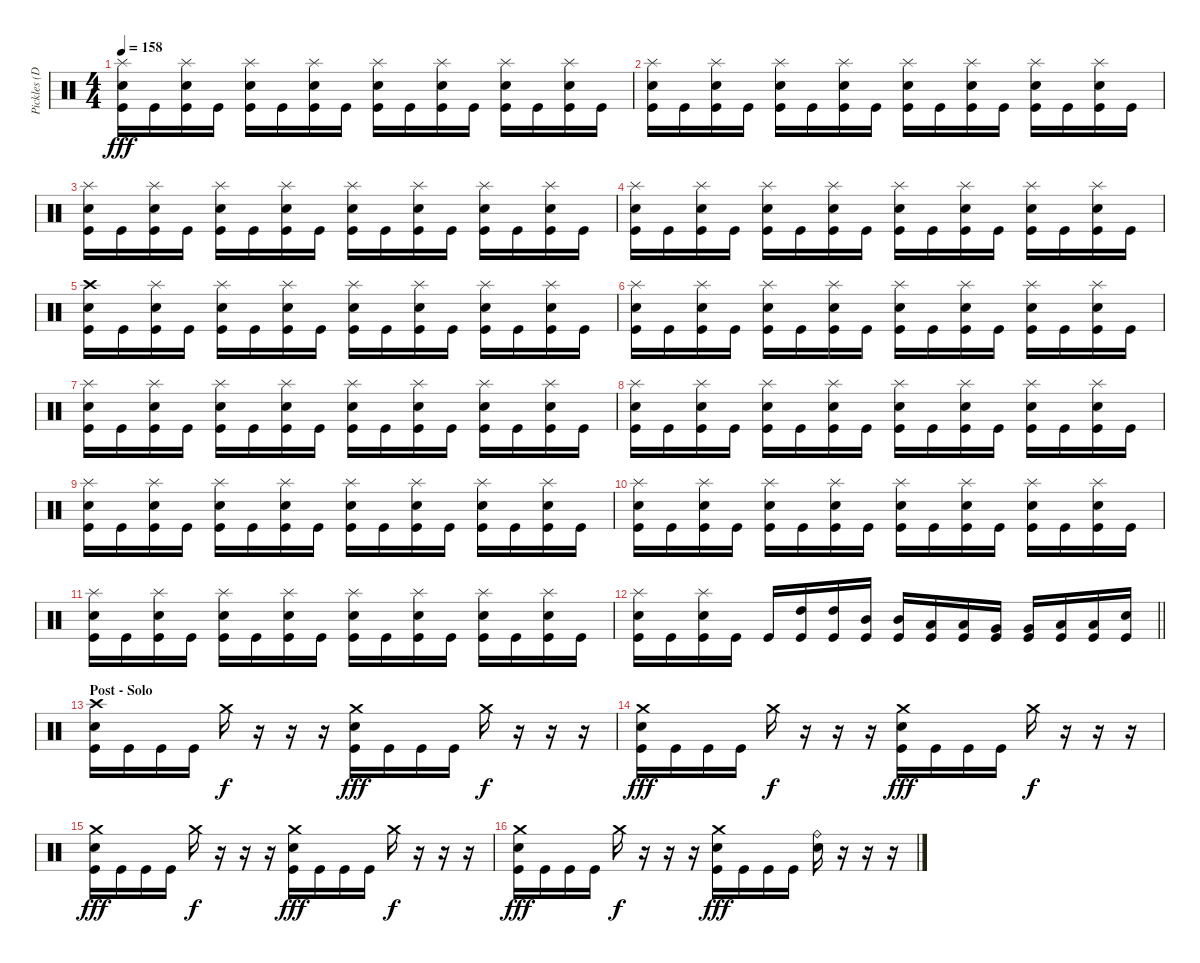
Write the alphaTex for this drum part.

\track ("Pickles (Drums)" "Pickles (D") {instrument percussion}
\staff {score}
\articulation defaults
\ts (4 4)
\tempo 158
\clef neutral
\ks c
("Splash (hit)" "Snare (hit) 2" "Kick (hit)").16{dy fff} "Kick (hit)".16 ("Splash (hit)" "Snare (hit) 2" "Kick (hit)").16 "Kick (hit)".16 ("Splash (hit)" "Snare (hit) 2" "Kick (hit)").16 "Kick (hit)".16 ("Splash (hit)" "Snare (hit) 2" "Kick (hit)").16 "Kick (hit)".16 ("Splash (hit)" "Snare (hit) 2" "Kick (hit)").16 "Kick (hit)".16 ("Splash (hit)" "Snare (hit) 2" "Kick (hit)").16 "Kick (hit)".16 ("Splash (hit)" "Snare (hit) 2" "Kick (hit)").16 "Kick (hit)".16 ("Splash (hit)" "Snare (hit) 2" "Kick (hit)").16 "Kick (hit)".16 |
("Splash (hit)" "Snare (hit) 2" "Kick (hit)").16 "Kick (hit)".16 ("Splash (hit)" "Snare (hit) 2" "Kick (hit)").16 "Kick (hit)".16 ("Splash (hit)" "Snare (hit) 2" "Kick (hit)").16 "Kick (hit)".16 ("Splash (hit)" "Snare (hit) 2" "Kick (hit)").16 "Kick (hit)".16 ("Splash (hit)" "Snare (hit) 2" "Kick (hit)").16 "Kick (hit)".16 ("Splash (hit)" "Snare (hit) 2" "Kick (hit)").16 "Kick (hit)".16 ("Splash (hit)" "Snare (hit) 2" "Kick (hit)").16 "Kick (hit)".16 ("Splash (hit)" "Snare (hit) 2" "Kick (hit)").16 "Kick (hit)".16 |
("Splash (hit)" "Snare (hit) 2" "Kick (hit)").16 "Kick (hit)".16 ("Splash (hit)" "Snare (hit) 2" "Kick (hit)").16 "Kick (hit)".16 ("Splash (hit)" "Snare (hit) 2" "Kick (hit)").16 "Kick (hit)".16 ("Splash (hit)" "Snare (hit) 2" "Kick (hit)").16 "Kick (hit)".16 ("Splash (hit)" "Snare (hit) 2" "Kick (hit)").16 "Kick (hit)".16 ("Splash (hit)" "Snare (hit) 2" "Kick (hit)").16 "Kick (hit)".16 ("Splash (hit)" "Snare (hit) 2" "Kick (hit)").16 "Kick (hit)".16 ("Splash (hit)" "Snare (hit) 2" "Kick (hit)").16 "Kick (hit)".16 |
("Splash (hit)" "Snare (hit) 2" "Kick (hit)").16 "Kick (hit)".16 ("Splash (hit)" "Snare (hit) 2" "Kick (hit)").16 "Kick (hit)".16 ("Splash (hit)" "Snare (hit) 2" "Kick (hit)").16 "Kick (hit)".16 ("Splash (hit)" "Snare (hit) 2" "Kick (hit)").16 "Kick (hit)".16 ("Splash (hit)" "Snare (hit) 2" "Kick (hit)").16 "Kick (hit)".16 ("Splash (hit)" "Snare (hit) 2" "Kick (hit)").16 "Kick (hit)".16 ("Splash (hit)" "Snare (hit) 2" "Kick (hit)").16 "Kick (hit)".16 ("Splash (hit)" "Snare (hit) 2" "Kick (hit)").16 "Kick (hit)".16 |
("Crash high (hit)" "Snare (hit) 2" "Kick (hit)").16 "Kick (hit)".16 ("Splash (hit)" "Snare (hit) 2" "Kick (hit)").16 "Kick (hit)".16 ("Splash (hit)" "Snare (hit) 2" "Kick (hit)").16 "Kick (hit)".16 ("Splash (hit)" "Snare (hit) 2" "Kick (hit)").16 "Kick (hit)".16 ("Splash (hit)" "Snare (hit) 2" "Kick (hit)").16 "Kick (hit)".16 ("Splash (hit)" "Snare (hit) 2" "Kick (hit)").16 "Kick (hit)".16 ("Splash (hit)" "Snare (hit) 2" "Kick (hit)").16 "Kick (hit)".16 ("Splash (hit)" "Snare (hit) 2" "Kick (hit)").16 "Kick (hit)".16 |
("Splash (hit)" "Snare (hit) 2" "Kick (hit)").16 "Kick (hit)".16 ("Splash (hit)" "Snare (hit) 2" "Kick (hit)").16 "Kick (hit)".16 ("Splash (hit)" "Snare (hit) 2" "Kick (hit)").16 "Kick (hit)".16 ("Splash (hit)" "Snare (hit) 2" "Kick (hit)").16 "Kick (hit)".16 ("Splash (hit)" "Snare (hit) 2" "Kick (hit)").16 "Kick (hit)".16 ("Splash (hit)" "Snare (hit) 2" "Kick (hit)").16 "Kick (hit)".16 ("Splash (hit)" "Snare (hit) 2" "Kick (hit)").16 "Kick (hit)".16 ("Splash (hit)" "Snare (hit) 2" "Kick (hit)").16 "Kick (hit)".16 |
("Splash (hit)" "Snare (hit) 2" "Kick (hit)").16 "Kick (hit)".16 ("Splash (hit)" "Snare (hit) 2" "Kick (hit)").16 "Kick (hit)".16 ("Splash (hit)" "Snare (hit) 2" "Kick (hit)").16 "Kick (hit)".16 ("Splash (hit)" "Snare (hit) 2" "Kick (hit)").16 "Kick (hit)".16 ("Splash (hit)" "Snare (hit) 2" "Kick (hit)").16 "Kick (hit)".16 ("Splash (hit)" "Snare (hit) 2" "Kick (hit)").16 "Kick (hit)".16 ("Splash (hit)" "Snare (hit) 2" "Kick (hit)").16 "Kick (hit)".16 ("Splash (hit)" "Snare (hit) 2" "Kick (hit)").16 "Kick (hit)".16 |
("Splash (hit)" "Snare (hit) 2" "Kick (hit)").16 "Kick (hit)".16 ("Splash (hit)" "Snare (hit) 2" "Kick (hit)").16 "Kick (hit)".16 ("Splash (hit)" "Snare (hit) 2" "Kick (hit)").16 "Kick (hit)".16 ("Splash (hit)" "Snare (hit) 2" "Kick (hit)").16 "Kick (hit)".16 ("Splash (hit)" "Snare (hit) 2" "Kick (hit)").16 "Kick (hit)".16 ("Splash (hit)" "Snare (hit) 2" "Kick (hit)").16 "Kick (hit)".16 ("Splash (hit)" "Snare (hit) 2" "Kick (hit)").16 "Kick (hit)".16 ("Splash (hit)" "Snare (hit) 2" "Kick (hit)").16 "Kick (hit)".16 |
("Splash (hit)" "Snare (hit) 2" "Kick (hit)").16 "Kick (hit)".16 ("Splash (hit)" "Snare (hit) 2" "Kick (hit)").16 "Kick (hit)".16 ("Splash (hit)" "Snare (hit) 2" "Kick (hit)").16 "Kick (hit)".16 ("Splash (hit)" "Snare (hit) 2" "Kick (hit)").16 "Kick (hit)".16 ("Splash (hit)" "Snare (hit) 2" "Kick (hit)").16 "Kick (hit)".16 ("Splash (hit)" "Snare (hit) 2" "Kick (hit)").16 "Kick (hit)".16 ("Splash (hit)" "Snare (hit) 2" "Kick (hit)").16 "Kick (hit)".16 ("Splash (hit)" "Snare (hit) 2" "Kick (hit)").16 "Kick (hit)".16 |
("Splash (hit)" "Snare (hit) 2" "Kick (hit)").16 "Kick (hit)".16 ("Splash (hit)" "Snare (hit) 2" "Kick (hit)").16 "Kick (hit)".16 ("Splash (hit)" "Snare (hit) 2" "Kick (hit)").16 "Kick (hit)".16 ("Splash (hit)" "Snare (hit) 2" "Kick (hit)").16 "Kick (hit)".16 ("Splash (hit)" "Snare (hit) 2" "Kick (hit)").16 "Kick (hit)".16 ("Splash (hit)" "Snare (hit) 2" "Kick (hit)").16 "Kick (hit)".16 ("Splash (hit)" "Snare (hit) 2" "Kick (hit)").16 "Kick (hit)".16 ("Splash (hit)" "Snare (hit) 2" "Kick (hit)").16 "Kick (hit)".16 |
("Splash (hit)" "Snare (hit) 2" "Kick (hit)").16 "Kick (hit)".16 ("Splash (hit)" "Snare (hit) 2" "Kick (hit)").16 "Kick (hit)".16 ("Splash (hit)" "Snare (hit) 2" "Kick (hit)").16 "Kick (hit)".16 ("Splash (hit)" "Snare (hit) 2" "Kick (hit)").16 "Kick (hit)".16 ("Splash (hit)" "Snare (hit) 2" "Kick (hit)").16 "Kick (hit)".16 ("Splash (hit)" "Snare (hit) 2" "Kick (hit)").16 "Kick (hit)".16 ("Splash (hit)" "Snare (hit) 2" "Kick (hit)").16 "Kick (hit)".16 ("Splash (hit)" "Snare (hit) 2" "Kick (hit)").16 "Kick (hit)".16 |
\barLineRight lightlight
("Splash (hit)" "Snare (hit) 2" "Kick (hit)").16 "Kick (hit)".16 ("Splash (hit)" "Snare (hit) 2" "Kick (hit)").16 "Kick (hit)".16 "Kick (hit)".16 ("High Tom (hit)" "Kick (hit)").16 ("High Tom (hit)" "Kick (hit)").16 ("Mid Tom (hit)" "Kick (hit)").16 ("Mid Tom (hit)" "Kick (hit)").16 ("Low Tom (hit)" "Kick (hit)").16 ("Low Tom (hit)" "Kick (hit)").16 ("Very Low Tom (hit)" "Kick (hit)").16 ("Very Low Tom (hit)" "Kick (hit)").16 ("Low Floor Tom (hit)" "Kick (hit)").16 ("Low Floor Tom (hit)" "Kick (hit)").16 ("Snare (hit) 2" "Kick (hit)").16 |
\section ("" "Post - Solo")
("Crash high (hit)" "Snare (hit) 2" "Kick (hit)").16 "Kick (hit)".16 "Kick (hit)".16 "Kick (hit)".16 "Crash medium (hit)".16{dy f} r.16 r.16 r.16 ("Crash medium (hit)" "Snare (hit) 2" "Kick (hit)").16{dy fff} "Kick (hit)".16 "Kick (hit)".16 "Kick (hit)".16 "Crash medium (hit)".16{dy f} r.16 r.16 r.16 |
("Crash medium (hit)" "Snare (hit) 2" "Kick (hit)").16{dy fff} "Kick (hit)".16 "Kick (hit)".16 "Kick (hit)".16 "Crash medium (hit)".16{dy f} r.16 r.16 r.16 ("Crash medium (hit)" "Snare (hit) 2" "Kick (hit)").16{dy fff} "Kick (hit)".16 "Kick (hit)".16 "Kick (hit)".16 "Crash medium (hit)".16{dy f} r.16 r.16 r.16 |
("Crash medium (hit)" "Snare (hit) 2" "Kick (hit)").16{dy fff} "Kick (hit)".16 "Kick (hit)".16 "Kick (hit)".16 "Crash medium (hit)".16{dy f} r.16 r.16 r.16 ("Crash medium (hit)" "Snare (hit) 2" "Kick (hit)").16{dy fff} "Kick (hit)".16 "Kick (hit)".16 "Kick (hit)".16 "Crash medium (hit)".16{dy f} r.16 r.16 r.16 |
("Crash medium (hit)" "Snare (hit) 2" "Kick (hit)").16{dy fff} "Kick (hit)".16 "Kick (hit)".16 "Kick (hit)".16 "Crash medium (hit)".16{dy f} r.16 r.16 r.16 ("Crash medium (hit)" "Snare (hit) 2" "Kick (hit)").16{dy fff} "Kick (hit)".16 "Kick (hit)".16 "Kick (hit)".16 ("Ride (bell)" "Snare (hit) 2").16 r.16 r.16 r.16
